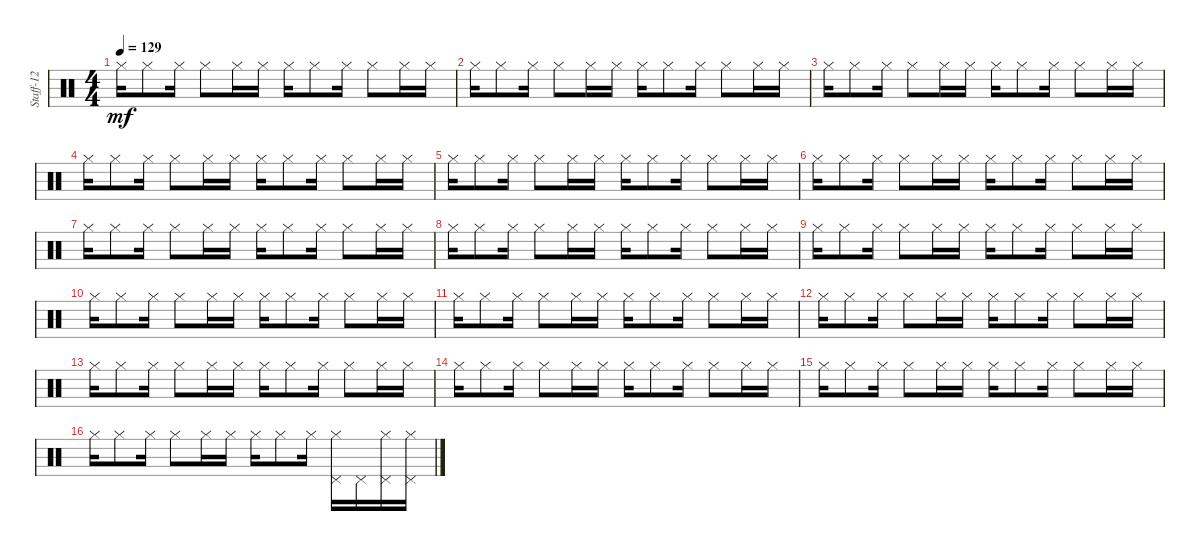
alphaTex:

\track ("Staff-12" "Staff-12") {instrument percussion}
\staff {score}
\articulation defaults
\ts (4 4)
\tempo 129
\clef neutral
\ks c "Hi-Hat (closed)".16{dy mf} "Hi-Hat (closed)".8 "Hi-Hat (closed)".16 "Hi-Hat (closed)".8 "Hi-Hat (closed)".16 "Hi-Hat (closed)".16 "Hi-Hat (closed)".16 "Hi-Hat (closed)".8 "Hi-Hat (closed)".16 "Hi-Hat (closed)".8 "Hi-Hat (closed)".16 "Hi-Hat (closed)".16
|
"Hi-Hat (closed)".16 "Hi-Hat (closed)".8 "Hi-Hat (closed)".16 "Hi-Hat (closed)".8 "Hi-Hat (closed)".16 "Hi-Hat (closed)".16 "Hi-Hat (closed)".16 "Hi-Hat (closed)".8 "Hi-Hat (closed)".16 "Hi-Hat (closed)".8 "Hi-Hat (closed)".16 "Hi-Hat (closed)".16 |
"Hi-Hat (closed)".16 "Hi-Hat (closed)".8 "Hi-Hat (closed)".16 "Hi-Hat (closed)".8 "Hi-Hat (closed)".16 "Hi-Hat (closed)".16 "Hi-Hat (closed)".16 "Hi-Hat (closed)".8 "Hi-Hat (closed)".16 "Hi-Hat (closed)".8 "Hi-Hat (closed)".16 "Hi-Hat (closed)".16 |
"Hi-Hat (closed)".16 "Hi-Hat (closed)".8 "Hi-Hat (closed)".16 "Hi-Hat (closed)".8 "Hi-Hat (closed)".16 "Hi-Hat (closed)".16 "Hi-Hat (closed)".16 "Hi-Hat (closed)".8 "Hi-Hat (closed)".16 "Hi-Hat (closed)".8 "Hi-Hat (closed)".16 "Hi-Hat (closed)".16 |
"Hi-Hat (closed)".16 "Hi-Hat (closed)".8 "Hi-Hat (closed)".16 "Hi-Hat (closed)".8 "Hi-Hat (closed)".16 "Hi-Hat (closed)".16 "Hi-Hat (closed)".16 "Hi-Hat (closed)".8 "Hi-Hat (closed)".16 "Hi-Hat (closed)".8 "Hi-Hat (closed)".16 "Hi-Hat (closed)".16 |
"Hi-Hat (closed)".16 "Hi-Hat (closed)".8 "Hi-Hat (closed)".16 "Hi-Hat (closed)".8 "Hi-Hat (closed)".16 "Hi-Hat (closed)".16 "Hi-Hat (closed)".16 "Hi-Hat (closed)".8 "Hi-Hat (closed)".16 "Hi-Hat (closed)".8 "Hi-Hat (closed)".16 "Hi-Hat (closed)".16 |
"Hi-Hat (closed)".16 "Hi-Hat (closed)".8 "Hi-Hat (closed)".16 "Hi-Hat (closed)".8 "Hi-Hat (closed)".16 "Hi-Hat (closed)".16 "Hi-Hat (closed)".16 "Hi-Hat (closed)".8 "Hi-Hat (closed)".16 "Hi-Hat (closed)".8 "Hi-Hat (closed)".16 "Hi-Hat (closed)".16 |
"Hi-Hat (closed)".16 "Hi-Hat (closed)".8 "Hi-Hat (closed)".16 "Hi-Hat (closed)".8 "Hi-Hat (closed)".16 "Hi-Hat (closed)".16 "Hi-Hat (closed)".16 "Hi-Hat (closed)".8 "Hi-Hat (closed)".16 "Hi-Hat (closed)".8 "Hi-Hat (closed)".16 "Hi-Hat (closed)".16 |
"Hi-Hat (closed)".16 "Hi-Hat (closed)".8 "Hi-Hat (closed)".16 "Hi-Hat (closed)".8 "Hi-Hat (closed)".16 "Hi-Hat (closed)".16 "Hi-Hat (closed)".16 "Hi-Hat (closed)".8 "Hi-Hat (closed)".16 "Hi-Hat (closed)".8 "Hi-Hat (closed)".16 "Hi-Hat (closed)".16 |
"Hi-Hat (closed)".16 "Hi-Hat (closed)".8 "Hi-Hat (closed)".16 "Hi-Hat (closed)".8 "Hi-Hat (closed)".16 "Hi-Hat (closed)".16 "Hi-Hat (closed)".16 "Hi-Hat (closed)".8 "Hi-Hat (closed)".16 "Hi-Hat (closed)".8 "Hi-Hat (closed)".16 "Hi-Hat (closed)".16 |
"Hi-Hat (closed)".16 "Hi-Hat (closed)".8 "Hi-Hat (closed)".16 "Hi-Hat (closed)".8 "Hi-Hat (closed)".16 "Hi-Hat (closed)".16 "Hi-Hat (closed)".16 "Hi-Hat (closed)".8 "Hi-Hat (closed)".16 "Hi-Hat (closed)".8 "Hi-Hat (closed)".16 "Hi-Hat (closed)".16 |
"Hi-Hat (closed)".16 "Hi-Hat (closed)".8 "Hi-Hat (closed)".16 "Hi-Hat (closed)".8 "Hi-Hat (closed)".16 "Hi-Hat (closed)".16 "Hi-Hat (closed)".16 "Hi-Hat (closed)".8 "Hi-Hat (closed)".16 "Hi-Hat (closed)".8 "Hi-Hat (closed)".16 "Hi-Hat (closed)".16 |
"Hi-Hat (closed)".16 "Hi-Hat (closed)".8 "Hi-Hat (closed)".16 "Hi-Hat (closed)".8 "Hi-Hat (closed)".16 "Hi-Hat (closed)".16 "Hi-Hat (closed)".16 "Hi-Hat (closed)".8 "Hi-Hat (closed)".16 "Hi-Hat (closed)".8 "Hi-Hat (closed)".16 "Hi-Hat (closed)".16 |
"Hi-Hat (closed)".16 "Hi-Hat (closed)".8 "Hi-Hat (closed)".16 "Hi-Hat (closed)".8 "Hi-Hat (closed)".16 "Hi-Hat (closed)".16 "Hi-Hat (closed)".16 "Hi-Hat (closed)".8 "Hi-Hat (closed)".16 "Hi-Hat (closed)".8 "Hi-Hat (closed)".16 "Hi-Hat (closed)".16 |
"Hi-Hat (closed)".16 "Hi-Hat (closed)".8 "Hi-Hat (closed)".16 "Hi-Hat (closed)".8 "Hi-Hat (closed)".16 "Hi-Hat (closed)".16 "Hi-Hat (closed)".16 "Hi-Hat (closed)".8 "Hi-Hat (closed)".16 "Hi-Hat (closed)".8 "Hi-Hat (closed)".16 "Hi-Hat (closed)".16 |
"Hi-Hat (closed)".16 "Hi-Hat (closed)".8 "Hi-Hat (closed)".16 "Hi-Hat (closed)".8 "Hi-Hat (closed)".16 "Hi-Hat (closed)".16 "Hi-Hat (closed)".16 "Hi-Hat (closed)".8 "Hi-Hat (closed)".16 ("Hi-Hat (closed)" "Pedal Hi-Hat (hit)").16 "Pedal Hi-Hat (hit)".16 ("Hi-Hat (closed)" "Pedal Hi-Hat (hit)").16 ("Hi-Hat (closed)" "Pedal Hi-Hat (hit)").16
